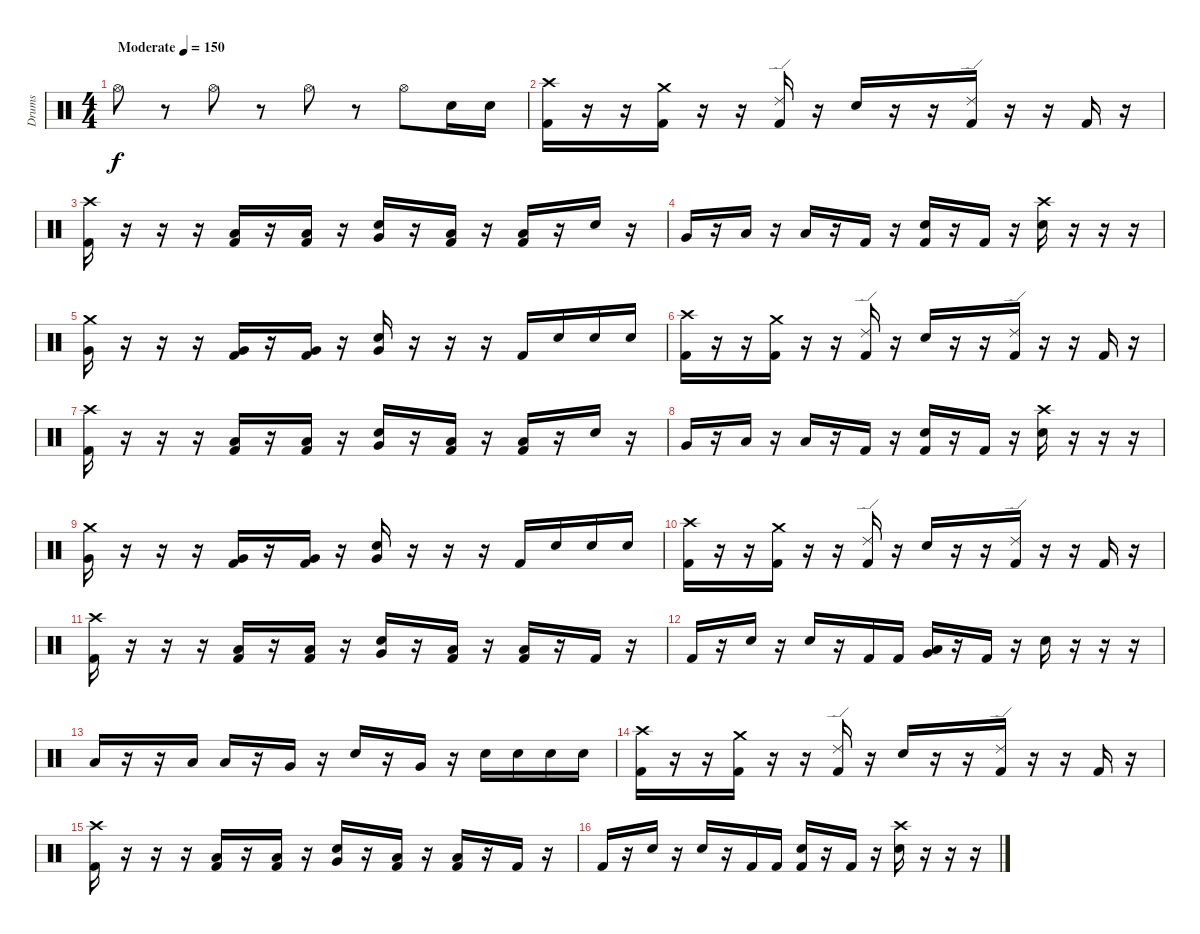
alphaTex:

\track ("Drums" "Drums") {instrument percussion}
\staff {score}
\articulation defaults
\ts (4 4)
\tempo (150 "Moderate")
\clef neutral
\ks c "Hi-Hat (open)".8{dy f}
r.8 "Hi-Hat (open)".8 r.8 "Hi-Hat (open)".8 r.8 "Hi-Hat (open)".8 "Electric Snare (hit)".16 "Electric Snare (hit)".16 |
("Crash high (hit)" "Kick (hit) 2").16 r.16 r.16 ("Crash medium (hit)" "Kick (hit) 2").16 r.16 r.16 ("Ride (edge) 2" "Kick (hit) 2").16 r.16 "Electric Snare (hit)".16 r.16 r.16 ("Ride (edge) 2" "Kick (hit) 2").16 r.16 r.16 "Kick (hit) 2".16 r.16 |
("Crash high (hit)" "Kick (hit) 2").16 r.16 r.16 r.16 ("Low Tom (hit)" "Kick (hit) 2").16 r.16 ("Low Tom (hit)" "Kick (hit) 2").16 r.16 ("Very Low Tom (hit)" "Electric Snare (hit)").16 r.16 ("Low Tom (hit)" "Kick (hit) 2").16 r.16 ("Low Tom (hit)" "Kick (hit) 2").16 r.16 "Electric Snare (hit)".16 r.16 |
"Very Low Tom (hit)".16 r.16 "Low Tom (hit)".16 r.16 "Low Tom (hit)".16 r.16 "Kick (hit) 2".16 r.16 ("Electric Snare (hit)" "Kick (hit) 2").16 r.16 "Kick (hit) 2".16 r.16 ("Crash high (hit)" "Electric Snare (hit)").16 r.16 r.16 r.16 |
("Crash medium (hit)" "Very Low Tom (hit)").16 r.16 r.16 r.16 ("Very Low Tom (hit)" "Kick (hit) 2").16 r.16 ("Very Low Tom (hit)" "Kick (hit) 2").16 r.16 ("Very Low Tom (hit)" "Electric Snare (hit)").16 r.16 r.16 r.16 "Kick (hit) 2".16 "Electric Snare (hit)".16 "Electric Snare (hit)".16 "Electric Snare (hit)".16 |
("Crash high (hit)" "Kick (hit) 2").16 r.16 r.16 ("Crash medium (hit)" "Kick (hit) 2").16 r.16 r.16 ("Ride (edge) 2" "Kick (hit) 2").16 r.16 "Electric Snare (hit)".16 r.16 r.16 ("Ride (edge) 2" "Kick (hit) 2").16 r.16 r.16 "Kick (hit) 2".16 r.16 |
("Crash high (hit)" "Kick (hit) 2").16 r.16 r.16 r.16 ("Low Tom (hit)" "Kick (hit) 2").16 r.16 ("Low Tom (hit)" "Kick (hit) 2").16 r.16 ("Very Low Tom (hit)" "Electric Snare (hit)").16 r.16 ("Low Tom (hit)" "Kick (hit) 2").16 r.16 ("Low Tom (hit)" "Kick (hit) 2").16 r.16 "Electric Snare (hit)".16 r.16 |
"Very Low Tom (hit)".16 r.16 "Low Tom (hit)".16 r.16 "Low Tom (hit)".16 r.16 "Kick (hit) 2".16 r.16 ("Electric Snare (hit)" "Kick (hit) 2").16 r.16 "Kick (hit) 2".16 r.16 ("Crash high (hit)" "Electric Snare (hit)").16 r.16 r.16 r.16 |
("Crash medium (hit)" "Very Low Tom (hit)").16 r.16 r.16 r.16 ("Very Low Tom (hit)" "Kick (hit) 2").16 r.16 ("Very Low Tom (hit)" "Kick (hit) 2").16 r.16 ("Very Low Tom (hit)" "Electric Snare (hit)").16 r.16 r.16 r.16 "Kick (hit) 2".16 "Electric Snare (hit)".16 "Electric Snare (hit)".16 "Electric Snare (hit)".16 |
("Crash high (hit)" "Kick (hit) 2").16 r.16 r.16 ("Crash medium (hit)" "Kick (hit) 2").16 r.16 r.16 ("Ride (edge) 2" "Kick (hit) 2").16 r.16 "Electric Snare (hit)".16 r.16 r.16 ("Ride (edge) 2" "Kick (hit) 2").16 r.16 r.16 "Kick (hit) 2".16 r.16 |
("Crash high (hit)" "Kick (hit) 2").16 r.16 r.16 r.16 ("Low Tom (hit)" "Kick (hit) 2").16 r.16 ("Low Tom (hit)" "Kick (hit) 2").16 r.16 ("Very Low Tom (hit)" "Electric Snare (hit)").16 r.16 ("Low Tom (hit)" "Kick (hit) 2").16 r.16 ("Low Tom (hit)" "Kick (hit) 2").16 r.16 "Kick (hit) 2".16 r.16 |
"Kick (hit) 2".16 r.16 "Electric Snare (hit)".16 r.16 "Electric Snare (hit)".16 r.16 "Kick (hit) 2".16 "Kick (hit) 2".16 ("Very Low Tom (hit)" "Low Tom (hit)").16 r.16 "Kick (hit) 2".16 r.16 "Electric Snare (hit)".16 r.16 r.16 r.16 |
"Low Tom (hit)".16 r.16 r.16 "Low Tom (hit)".16 "Low Tom (hit)".16 r.16 "Very Low Tom (hit)".16 r.16 "Electric Snare (hit)".16 r.16 "Very Low Tom (hit)".16 r.16 "Electric Snare (hit)".16 "Electric Snare (hit)".16 "Electric Snare (hit)".16 "Electric Snare (hit)".16 |
("Crash high (hit)" "Kick (hit) 2").16 r.16 r.16 ("Crash medium (hit)" "Kick (hit) 2").16 r.16 r.16 ("Ride (edge) 2" "Kick (hit) 2").16 r.16 "Electric Snare (hit)".16 r.16 r.16 ("Ride (edge) 2" "Kick (hit) 2").16 r.16 r.16 "Kick (hit) 2".16 r.16 |
("Crash high (hit)" "Kick (hit) 2").16 r.16 r.16 r.16 ("Low Tom (hit)" "Kick (hit) 2").16 r.16 ("Low Tom (hit)" "Kick (hit) 2").16 r.16 ("Very Low Tom (hit)" "Electric Snare (hit)").16 r.16 ("Low Tom (hit)" "Kick (hit) 2").16 r.16 ("Low Tom (hit)" "Kick (hit) 2").16 r.16 "Kick (hit) 2".16 r.16 |
"Kick (hit) 2".16 r.16 "Electric Snare (hit)".16 r.16 "Electric Snare (hit)".16 r.16 "Kick (hit) 2".16 "Kick (hit) 2".16 ("Electric Snare (hit)" "Kick (hit) 2").16 r.16 "Kick (hit) 2".16 r.16 ("Crash high (hit)" "Electric Snare (hit)").16 r.16 r.16 r.16
